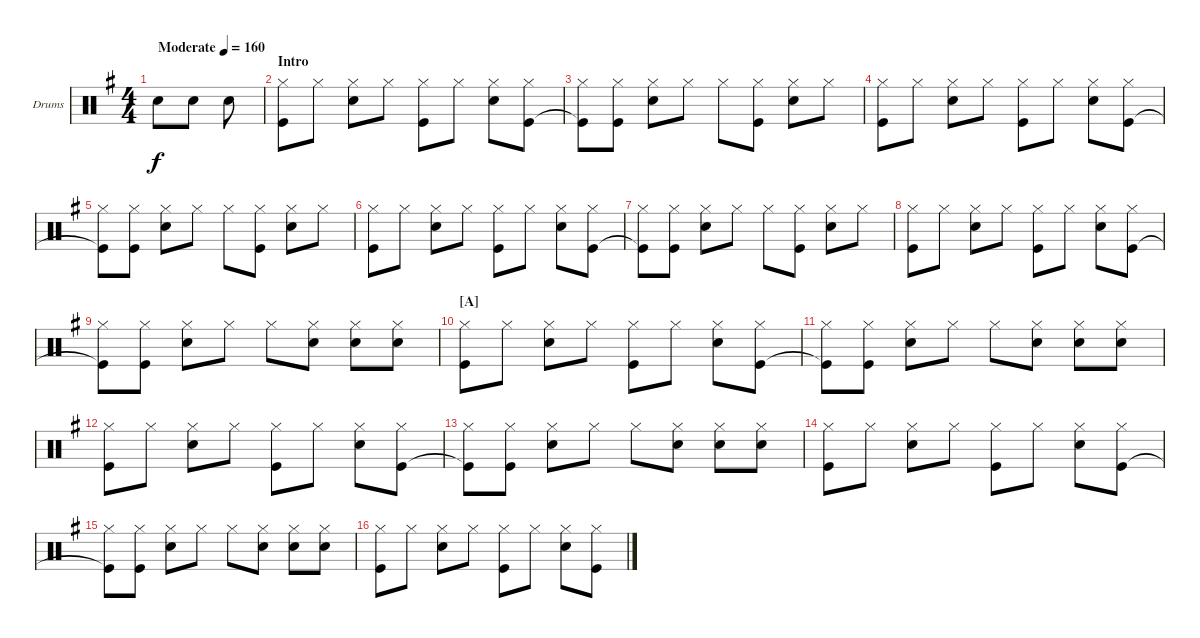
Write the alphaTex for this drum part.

\bracketExtendMode groupsimilarinstruments
\firstSystemTrackNameOrientation horizontal
\otherSystemsTrackNameOrientation horizontal
\track ("Fabrizio Moretti" "Drums") {instrument percussion}
\staff {score}
\articulation defaults
\ts (4 4)
\beaming (8 2 2 2 2)
\ac
\tempo (160 "Moderate")
\clef neutral
\ks g "Snare (hit) 2".8{dy f} "Snare (hit) 2".8 "Snare (hit) 2".8
|
\section ("" "Intro")
("Hi-Hat (closed)" "Kick (hit)").8 "Hi-Hat (closed)".8 ("Hi-Hat (closed)" "Snare (hit) 2").8 "Hi-Hat (closed)".8 ("Hi-Hat (closed)" "Kick (hit)").8 "Hi-Hat (closed)".8 ("Hi-Hat (closed)" "Snare (hit) 2").8 ("Hi-Hat (closed)" "Kick (hit)").8 |
("Hi-Hat (closed)" "Kick (hit)"{t}).8 ("Hi-Hat (closed)" "Kick (hit)").8 ("Hi-Hat (closed)" "Snare (hit) 2").8 "Hi-Hat (closed)".8 "Hi-Hat (closed)".8 ("Hi-Hat (closed)" "Kick (hit)").8 ("Hi-Hat (closed)" "Snare (hit) 2").8 "Hi-Hat (closed)".8 |
("Hi-Hat (closed)" "Kick (hit)").8 "Hi-Hat (closed)".8 ("Hi-Hat (closed)" "Snare (hit) 2").8 "Hi-Hat (closed)".8 ("Hi-Hat (closed)" "Kick (hit)").8 "Hi-Hat (closed)".8 ("Hi-Hat (closed)" "Snare (hit) 2").8 ("Hi-Hat (closed)" "Kick (hit)").8 |
("Hi-Hat (closed)" "Kick (hit)"{t}).8 ("Hi-Hat (closed)" "Kick (hit)").8 ("Hi-Hat (closed)" "Snare (hit) 2").8 "Hi-Hat (closed)".8 "Hi-Hat (closed)".8 ("Hi-Hat (closed)" "Kick (hit)").8 ("Hi-Hat (closed)" "Snare (hit) 2").8 "Hi-Hat (closed)".8 |
("Hi-Hat (closed)" "Kick (hit)").8 "Hi-Hat (closed)".8 ("Hi-Hat (closed)" "Snare (hit) 2").8 "Hi-Hat (closed)".8 ("Hi-Hat (closed)" "Kick (hit)").8 "Hi-Hat (closed)".8 ("Hi-Hat (closed)" "Snare (hit) 2").8 ("Hi-Hat (closed)" "Kick (hit)").8 |
("Hi-Hat (closed)" "Kick (hit)"{t}).8 ("Hi-Hat (closed)" "Kick (hit)").8 ("Hi-Hat (closed)" "Snare (hit) 2").8 "Hi-Hat (closed)".8 "Hi-Hat (closed)".8 ("Hi-Hat (closed)" "Kick (hit)").8 ("Hi-Hat (closed)" "Snare (hit) 2").8 "Hi-Hat (closed)".8 |
("Hi-Hat (closed)" "Kick (hit)").8 "Hi-Hat (closed)".8 ("Hi-Hat (closed)" "Snare (hit) 2").8 "Hi-Hat (closed)".8 ("Hi-Hat (closed)" "Kick (hit)").8 "Hi-Hat (closed)".8 ("Hi-Hat (closed)" "Snare (hit) 2").8 ("Hi-Hat (closed)" "Kick (hit)").8 |
("Hi-Hat (closed)" "Kick (hit)"{t}).8 ("Hi-Hat (closed)" "Kick (hit)").8 ("Hi-Hat (closed)" "Snare (hit) 2").8 "Hi-Hat (closed)".8 "Hi-Hat (closed)".8 ("Hi-Hat (closed)" "Snare (hit) 2").8 ("Hi-Hat (closed)" "Snare (hit) 2").8 ("Hi-Hat (closed)" "Snare (hit) 2").8 |
\section ("A" "")
("Hi-Hat (closed)" "Kick (hit)").8 "Hi-Hat (closed)".8 ("Hi-Hat (closed)" "Snare (hit) 2").8 "Hi-Hat (closed)".8 ("Hi-Hat (closed)" "Kick (hit)").8 "Hi-Hat (closed)".8 ("Hi-Hat (closed)" "Snare (hit) 2").8 ("Hi-Hat (closed)" "Kick (hit)").8 |
("Hi-Hat (closed)" "Kick (hit)"{t}).8 ("Hi-Hat (closed)" "Kick (hit)").8 ("Hi-Hat (closed)" "Snare (hit) 2").8 "Hi-Hat (closed)".8 "Hi-Hat (closed)".8 ("Hi-Hat (closed)" "Snare (hit) 2").8 ("Hi-Hat (closed)" "Snare (hit) 2").8 ("Hi-Hat (closed)" "Snare (hit) 2").8 |
("Hi-Hat (closed)" "Kick (hit)").8 "Hi-Hat (closed)".8 ("Hi-Hat (closed)" "Snare (hit) 2").8 "Hi-Hat (closed)".8 ("Hi-Hat (closed)" "Kick (hit)").8 "Hi-Hat (closed)".8 ("Hi-Hat (closed)" "Snare (hit) 2").8 ("Hi-Hat (closed)" "Kick (hit)").8 |
("Hi-Hat (closed)" "Kick (hit)"{t}).8 ("Hi-Hat (closed)" "Kick (hit)").8 ("Hi-Hat (closed)" "Snare (hit) 2").8 "Hi-Hat (closed)".8 "Hi-Hat (closed)".8 ("Hi-Hat (closed)" "Snare (hit) 2").8 ("Hi-Hat (closed)" "Snare (hit) 2").8 ("Hi-Hat (closed)" "Snare (hit) 2").8 |
("Hi-Hat (closed)" "Kick (hit)").8 "Hi-Hat (closed)".8 ("Hi-Hat (closed)" "Snare (hit) 2").8 "Hi-Hat (closed)".8 ("Hi-Hat (closed)" "Kick (hit)").8 "Hi-Hat (closed)".8 ("Hi-Hat (closed)" "Snare (hit) 2").8 ("Hi-Hat (closed)" "Kick (hit)").8 |
("Hi-Hat (closed)" "Kick (hit)"{t}).8 ("Hi-Hat (closed)" "Kick (hit)").8 ("Hi-Hat (closed)" "Snare (hit) 2").8 "Hi-Hat (closed)".8 "Hi-Hat (closed)".8 ("Hi-Hat (closed)" "Snare (hit) 2").8 ("Hi-Hat (closed)" "Snare (hit) 2").8 ("Hi-Hat (closed)" "Snare (hit) 2").8 |
("Hi-Hat (closed)" "Kick (hit)").8 "Hi-Hat (closed)".8 ("Hi-Hat (closed)" "Snare (hit) 2").8 "Hi-Hat (closed)".8 ("Hi-Hat (closed)" "Kick (hit)").8 "Hi-Hat (closed)".8 ("Hi-Hat (closed)" "Snare (hit) 2").8 ("Hi-Hat (closed)" "Kick (hit)").8
